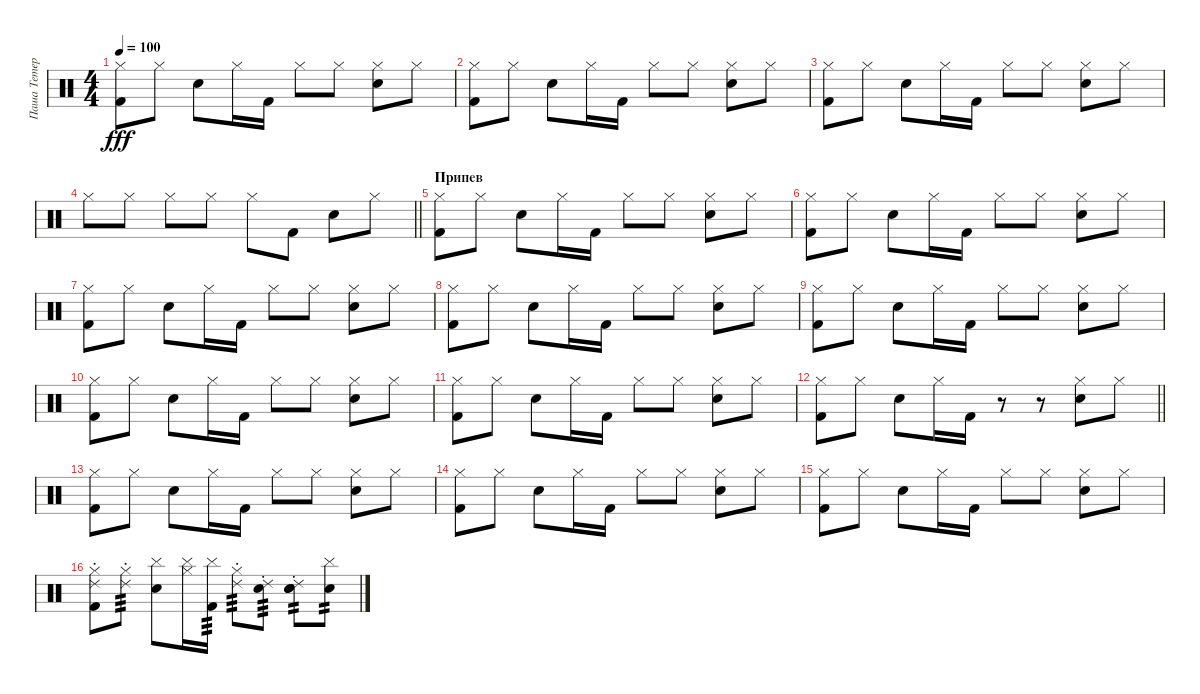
\track ("Паша Тетерин" "Паша Тетер") {instrument percussion}
\staff {score}
\articulation defaults
\ts (4 4)
\tempo 100
\clef neutral
\ks c
("Hi-Hat (closed)" "Kick (hit) 2").8{dy fff} "Hi-Hat (closed)".8 "Snare (hit) 2".8 "Hi-Hat (closed)".16 "Kick (hit) 2".16 "Hi-Hat (closed)".8 "Hi-Hat (closed)".8 ("Hi-Hat (closed)" "Snare (hit) 2").8 "Hi-Hat (closed)".8 |
("Hi-Hat (closed)" "Kick (hit) 2").8 "Hi-Hat (closed)".8 "Snare (hit) 2".8 "Hi-Hat (closed)".16 "Kick (hit) 2".16 "Hi-Hat (closed)".8 "Hi-Hat (closed)".8 ("Hi-Hat (closed)" "Snare (hit) 2").8 "Hi-Hat (closed)".8 |
("Hi-Hat (closed)" "Kick (hit) 2").8 "Hi-Hat (closed)".8 "Snare (hit) 2".8 "Hi-Hat (closed)".16 "Kick (hit) 2".16 "Hi-Hat (closed)".8 "Hi-Hat (closed)".8 ("Hi-Hat (closed)" "Snare (hit) 2").8 "Hi-Hat (closed)".8 |
\barLineRight lightlight "Hi-Hat (closed)".8 "Hi-Hat (closed)".8 "Hi-Hat (closed)".8 "Hi-Hat (closed)".8 "Hi-Hat (closed)".8 "Kick (hit) 2".8 "Electric Snare (hit)".8 "Hi-Hat (closed)".8
|
\section ("" "Припев")
("Hi-Hat (closed)" "Kick (hit) 2").8 "Hi-Hat (closed)".8 "Snare (hit) 2".8 "Hi-Hat (closed)".16 "Kick (hit) 2".16 "Hi-Hat (closed)".8 "Hi-Hat (closed)".8 ("Hi-Hat (closed)" "Snare (hit) 2").8 "Hi-Hat (closed)".8 |
("Hi-Hat (closed)" "Kick (hit) 2").8 "Hi-Hat (closed)".8 "Snare (hit) 2".8 "Hi-Hat (closed)".16 "Kick (hit) 2".16 "Hi-Hat (closed)".8 "Hi-Hat (closed)".8 ("Hi-Hat (closed)" "Snare (hit) 2").8 "Hi-Hat (closed)".8 |
("Hi-Hat (closed)" "Kick (hit) 2").8 "Hi-Hat (closed)".8 "Snare (hit) 2".8 "Hi-Hat (closed)".16 "Kick (hit) 2".16 "Hi-Hat (closed)".8 "Hi-Hat (closed)".8 ("Hi-Hat (closed)" "Snare (hit) 2").8 "Hi-Hat (closed)".8 |
("Hi-Hat (closed)" "Kick (hit) 2").8 "Hi-Hat (closed)".8 "Snare (hit) 2".8 "Hi-Hat (closed)".16 "Kick (hit) 2".16 "Hi-Hat (closed)".8 "Hi-Hat (closed)".8 ("Hi-Hat (closed)" "Snare (hit) 2").8 "Hi-Hat (closed)".8 |
("Hi-Hat (closed)" "Kick (hit) 2").8 "Hi-Hat (closed)".8 "Snare (hit) 2".8 "Hi-Hat (closed)".16 "Kick (hit) 2".16 "Hi-Hat (closed)".8 "Hi-Hat (closed)".8 ("Hi-Hat (closed)" "Snare (hit) 2").8 "Hi-Hat (closed)".8 |
("Hi-Hat (closed)" "Kick (hit) 2").8 "Hi-Hat (closed)".8 "Snare (hit) 2".8 "Hi-Hat (closed)".16 "Kick (hit) 2".16 "Hi-Hat (closed)".8 "Hi-Hat (closed)".8 ("Hi-Hat (closed)" "Snare (hit) 2").8 "Hi-Hat (closed)".8 |
("Hi-Hat (closed)" "Kick (hit) 2").8 "Hi-Hat (closed)".8 "Snare (hit) 2".8 "Hi-Hat (closed)".16 "Kick (hit) 2".16 "Hi-Hat (closed)".8 "Hi-Hat (closed)".8 ("Hi-Hat (closed)" "Snare (hit) 2").8 "Hi-Hat (closed)".8 |
\barLineRight lightlight
("Hi-Hat (closed)" "Kick (hit) 2").8 "Hi-Hat (closed)".8 "Snare (hit) 2".8 "Hi-Hat (closed)".16 "Kick (hit) 2".16 r.8 r.8 ("Hi-Hat (closed)" "Snare (hit) 2").8 "Hi-Hat (closed)".8 |
("Hi-Hat (closed)" "Kick (hit) 2").8 "Hi-Hat (closed)".8 "Snare (hit) 2".8 "Hi-Hat (closed)".16 "Kick (hit) 2".16 "Hi-Hat (closed)".8 "Hi-Hat (closed)".8 ("Hi-Hat (closed)" "Snare (hit) 2").8 "Hi-Hat (closed)".8 |
("Hi-Hat (closed)" "Kick (hit) 2").8 "Hi-Hat (closed)".8 "Snare (hit) 2".8 "Hi-Hat (closed)".16 "Kick (hit) 2".16 "Hi-Hat (closed)".8 "Hi-Hat (closed)".8 ("Hi-Hat (closed)" "Snare (hit) 2").8 "Hi-Hat (closed)".8 |
("Hi-Hat (closed)" "Kick (hit) 2").8 "Hi-Hat (closed)".8 "Snare (hit) 2".8 "Hi-Hat (closed)".16 "Kick (hit) 2".16 "Hi-Hat (closed)".8 "Hi-Hat (closed)".8 ("Hi-Hat (closed)" "Snare (hit) 2").8 "Hi-Hat (closed)".8 |
("Ride (choke) 2" "Hi-Hat (closed)" "Kick (hit) 2").8 ("Ride (choke) 2" "Hi-Hat (closed)").8{tp 3} ("Cymbal (hit)" "Snare (hit) 2").8 ("Cymbal (hit)" "Hi-Hat (closed)").16 ("Cymbal (hit)" "Kick (hit) 2").16{tp 3} ("Ride (choke) 2" "Hi-Hat (closed)").8{tp 3} ("Ride (choke) 2" "Snare (hit) 2").8{tp 3} ("Ride (choke) 2" "Snare (hit) 2" "Snare (hit) 2").8{tp 2} ("Cymbal (hit)" "Snare (hit) 2").8{tp 2}
